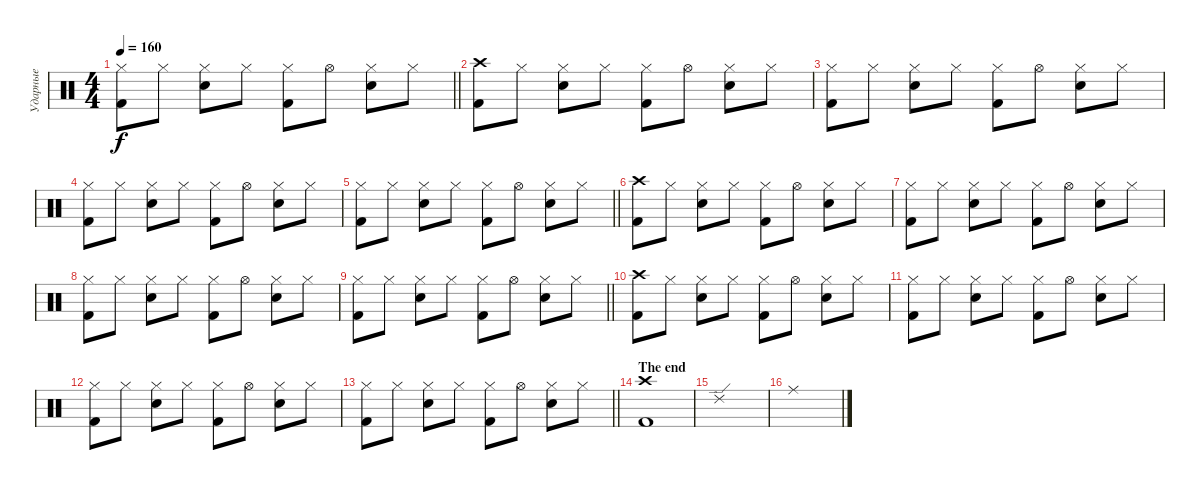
\track ("Ударные" "Ударные") {instrument percussion}
\staff {score}
\articulation defaults
\ts (4 4)
\tempo 160
\clef neutral
\barLineRight lightlight
\ks c
("Hi-Hat (closed)" "Kick (hit) 2").8{dy f} "Hi-Hat (closed)".8 ("Hi-Hat (closed)" "Snare (hit) 2").8 "Hi-Hat (closed)".8 ("Hi-Hat (closed)" "Kick (hit) 2").8 "Hi-Hat (open)".8 ("Hi-Hat (closed)" "Snare (hit) 2").8 "Hi-Hat (closed)".8 |
("Crash high (hit)" "Kick (hit) 2").8 "Hi-Hat (closed)".8 ("Hi-Hat (closed)" "Snare (hit) 2").8 "Hi-Hat (closed)".8 ("Hi-Hat (closed)" "Kick (hit) 2").8 "Hi-Hat (open)".8 ("Hi-Hat (closed)" "Snare (hit) 2").8 "Hi-Hat (closed)".8 |
("Hi-Hat (closed)" "Kick (hit) 2").8 "Hi-Hat (closed)".8 ("Hi-Hat (closed)" "Snare (hit) 2").8 "Hi-Hat (closed)".8 ("Hi-Hat (closed)" "Kick (hit) 2").8 "Hi-Hat (open)".8 ("Hi-Hat (closed)" "Snare (hit) 2").8 "Hi-Hat (closed)".8 |
("Hi-Hat (closed)" "Kick (hit) 2").8 "Hi-Hat (closed)".8 ("Hi-Hat (closed)" "Snare (hit) 2").8 "Hi-Hat (closed)".8 ("Hi-Hat (closed)" "Kick (hit) 2").8 "Hi-Hat (open)".8 ("Hi-Hat (closed)" "Snare (hit) 2").8 "Hi-Hat (closed)".8 |
\barLineRight lightlight
("Hi-Hat (closed)" "Kick (hit) 2").8 "Hi-Hat (closed)".8 ("Hi-Hat (closed)" "Snare (hit) 2").8 "Hi-Hat (closed)".8 ("Hi-Hat (closed)" "Kick (hit) 2").8 "Hi-Hat (open)".8 ("Hi-Hat (closed)" "Snare (hit) 2").8 "Hi-Hat (closed)".8 |
("Crash high (hit)" "Kick (hit) 2").8 "Hi-Hat (closed)".8 ("Hi-Hat (closed)" "Snare (hit) 2").8 "Hi-Hat (closed)".8 ("Hi-Hat (closed)" "Kick (hit) 2").8 "Hi-Hat (open)".8 ("Hi-Hat (closed)" "Snare (hit) 2").8 "Hi-Hat (closed)".8 |
("Hi-Hat (closed)" "Kick (hit) 2").8 "Hi-Hat (closed)".8 ("Hi-Hat (closed)" "Snare (hit) 2").8 "Hi-Hat (closed)".8 ("Hi-Hat (closed)" "Kick (hit) 2").8 "Hi-Hat (open)".8 ("Hi-Hat (closed)" "Snare (hit) 2").8 "Hi-Hat (closed)".8 |
("Hi-Hat (closed)" "Kick (hit) 2").8 "Hi-Hat (closed)".8 ("Hi-Hat (closed)" "Snare (hit) 2").8 "Hi-Hat (closed)".8 ("Hi-Hat (closed)" "Kick (hit) 2").8 "Hi-Hat (open)".8 ("Hi-Hat (closed)" "Snare (hit) 2").8 "Hi-Hat (closed)".8 |
\barLineRight lightlight
("Hi-Hat (closed)" "Kick (hit) 2").8 "Hi-Hat (closed)".8 ("Hi-Hat (closed)" "Snare (hit) 2").8 "Hi-Hat (closed)".8 ("Hi-Hat (closed)" "Kick (hit) 2").8 "Hi-Hat (open)".8 ("Hi-Hat (closed)" "Snare (hit) 2").8 "Hi-Hat (closed)".8 |
("Crash high (hit)" "Kick (hit) 2").8 "Hi-Hat (closed)".8 ("Hi-Hat (closed)" "Snare (hit) 2").8 "Hi-Hat (closed)".8 ("Hi-Hat (closed)" "Kick (hit) 2").8 "Hi-Hat (open)".8 ("Hi-Hat (closed)" "Snare (hit) 2").8 "Hi-Hat (closed)".8 |
("Hi-Hat (closed)" "Kick (hit) 2").8 "Hi-Hat (closed)".8 ("Hi-Hat (closed)" "Snare (hit) 2").8 "Hi-Hat (closed)".8 ("Hi-Hat (closed)" "Kick (hit) 2").8 "Hi-Hat (open)".8 ("Hi-Hat (closed)" "Snare (hit) 2").8 "Hi-Hat (closed)".8 |
("Hi-Hat (closed)" "Kick (hit) 2").8 "Hi-Hat (closed)".8 ("Hi-Hat (closed)" "Snare (hit) 2").8 "Hi-Hat (closed)".8 ("Hi-Hat (closed)" "Kick (hit) 2").8 "Hi-Hat (open)".8 ("Hi-Hat (closed)" "Snare (hit) 2").8 "Hi-Hat (closed)".8 |
\barLineRight lightlight
("Hi-Hat (closed)" "Kick (hit) 2").8 "Hi-Hat (closed)".8 ("Hi-Hat (closed)" "Snare (hit) 2").8 "Hi-Hat (closed)".8 ("Hi-Hat (closed)" "Kick (hit) 2").8 "Hi-Hat (open)".8 ("Hi-Hat (closed)" "Snare (hit) 2").8 "Hi-Hat (closed)".8 |
\section ("" "The end")
("Crash high (hit)" "Kick (hit) 2").1 |
"Ride (edge) 2".1 |
"Ride (middle)".1
